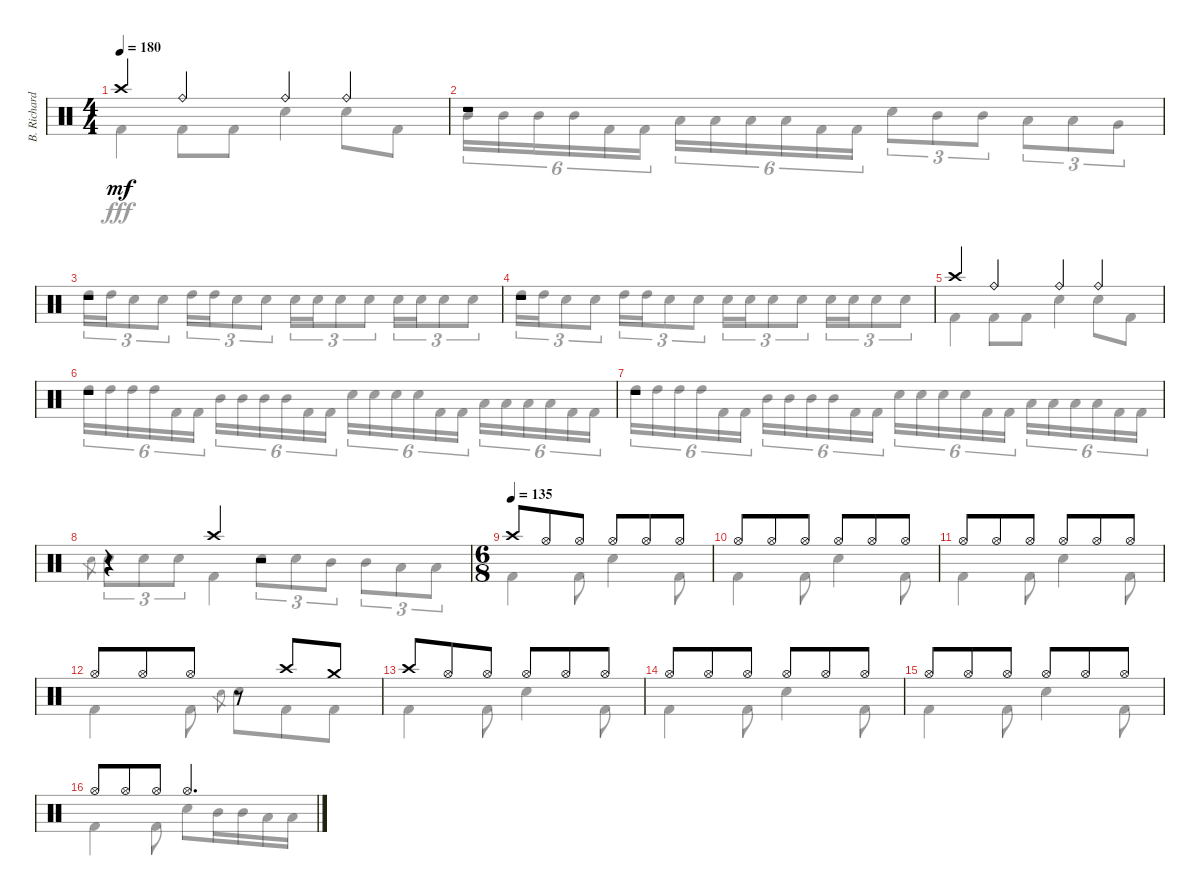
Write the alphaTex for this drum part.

\track ("B. Richardson Drums" "B. Richard") {instrument percussion}
\staff {score}
\articulation defaults
\voice
\ts (4 4)
\tempo 180
\clef neutral
\ks c "Crash high (hit)".4{dy mf} "Ride (bell)".4 "Ride (bell)".4 "Ride (bell)".4
|
r.1 |
r.1 |
r.1 |
"Crash high (hit)".4 "Ride (bell)".4 "Ride (bell)".4 "Ride (bell)".4 |
r.1 |
r.1 |
r.4 "Crash high (hit)".4 r.2 |
\ts (6 8)
\tempo (135)
"Crash high (hit)".8 "Hi-Hat (open)".8 "Hi-Hat (open)".8 "Hi-Hat (open)".8 "Hi-Hat (open)".8 "Hi-Hat (open)".8 |
"Hi-Hat (open)".8 "Hi-Hat (open)".8 "Hi-Hat (open)".8 "Hi-Hat (open)".8 "Hi-Hat (open)".8 "Hi-Hat (open)".8 |
"Hi-Hat (open)".8 "Hi-Hat (open)".8 "Hi-Hat (open)".8 "Hi-Hat (open)".8 "Hi-Hat (open)".8 "Hi-Hat (open)".8 |
"Hi-Hat (open)".8 "Hi-Hat (open)".8 "Hi-Hat (open)".8 r.8 "Crash high (hit)".8 "Crash medium (hit)".8 |
"Crash high (hit)".8 "Hi-Hat (open)".8 "Hi-Hat (open)".8 "Hi-Hat (open)".8 "Hi-Hat (open)".8 "Hi-Hat (open)".8 |
"Hi-Hat (open)".8 "Hi-Hat (open)".8 "Hi-Hat (open)".8 "Hi-Hat (open)".8 "Hi-Hat (open)".8 "Hi-Hat (open)".8 |
"Hi-Hat (open)".8 "Hi-Hat (open)".8 "Hi-Hat (open)".8 "Hi-Hat (open)".8 "Hi-Hat (open)".8 "Hi-Hat (open)".8 |
"Hi-Hat (open)".8 "Hi-Hat (open)".8 "Hi-Hat (open)".8 "Hi-Hat (open)".4{d}
\voice
\clef neutral
\ottava regular
\simile none
\ks c "Kick (hit) 2".4{dy fff} "Kick (hit) 2".8 "Kick (hit) 2".8 "Electric Snare (hit)".4 "Electric Snare (hit)".8 "Kick (hit) 2".8
|
"Mid Tom (hit)".16{tu (6 4)} "Mid Tom (hit)".16{tu (6 4)} "Mid Tom (hit)".16{tu (6 4)} "Mid Tom (hit)".16{tu (6 4)} "Kick (hit) 2".16{tu (6 4)} "Kick (hit) 2".16{tu (6 4)} "Low Tom (hit)".16{tu (6 4)} "Low Tom (hit)".16{tu (6 4)} "Low Tom (hit)".16{tu (6 4)} "Low Tom (hit)".16{tu (6 4)} "Kick (hit) 2".16{tu (6 4)} "Kick (hit) 2".16{tu (6 4)} "Electric Snare (hit)".8{tu (3 2)} "Mid Tom (hit)".8{tu (3 2)} "Mid Tom (hit)".8{tu (3 2)} "Low Tom (hit)".8{tu (3 2)} "Low Tom (hit)".8{tu (3 2)} "Very Low Tom (hit)".8{tu (3 2)} |
"High Tom (hit)".16{tu (3 2)} "High Tom (hit)".16{tu (3 2)} "Electric Snare (hit)".8{tu (3 2)} "Electric Snare (hit)".8{tu (3 2)} "High Tom (hit)".16{tu (3 2)} "High Tom (hit)".16{tu (3 2)} "Electric Snare (hit)".8{tu (3 2)} "Electric Snare (hit)".8{tu (3 2)} "Electric Snare (hit)".16{tu (3 2)} "Electric Snare (hit)".16{tu (3 2)} "Electric Snare (hit)".8{tu (3 2)} "Electric Snare (hit)".8{tu (3 2)} "Electric Snare (hit)".16{tu (3 2)} "Electric Snare (hit)".16{tu (3 2)} "Electric Snare (hit)".8{tu (3 2)} "Electric Snare (hit)".8{tu (3 2)} |
"High Tom (hit)".16{tu (3 2)} "High Tom (hit)".16{tu (3 2)} "Electric Snare (hit)".8{tu (3 2)} "Electric Snare (hit)".8{tu (3 2)} "High Tom (hit)".16{tu (3 2)} "High Tom (hit)".16{tu (3 2)} "Electric Snare (hit)".8{tu (3 2)} "Electric Snare (hit)".8{tu (3 2)} "Electric Snare (hit)".16{tu (3 2)} "Electric Snare (hit)".16{tu (3 2)} "Electric Snare (hit)".8{tu (3 2)} "Electric Snare (hit)".8{tu (3 2)} "Electric Snare (hit)".16{tu (3 2)} "Electric Snare (hit)".16{tu (3 2)} "Electric Snare (hit)".8{tu (3 2)} "Electric Snare (hit)".8{tu (3 2)} |
"Kick (hit) 2".4 "Kick (hit) 2".8 "Kick (hit) 2".8 "Electric Snare (hit)".4 "Electric Snare (hit)".8 "Kick (hit) 2".8 |
"High Tom (hit)".16{tu (6 4)} "High Tom (hit)".16{tu (6 4)} "High Tom (hit)".16{tu (6 4)} "High Tom (hit)".16{tu (6 4)} "Kick (hit) 2".16{tu (6 4)} "Kick (hit) 2".16{tu (6 4)} "Mid Tom (hit)".16{tu (6 4)} "Mid Tom (hit)".16{tu (6 4)} "Mid Tom (hit)".16{tu (6 4)} "Mid Tom (hit)".16{tu (6 4)} "Kick (hit) 2".16{tu (6 4)} "Kick (hit) 2".16{tu (6 4)} "Electric Snare (hit)".16{tu (6 4)} "Electric Snare (hit)".16{tu (6 4)} "Electric Snare (hit)".16{tu (6 4)} "Electric Snare (hit)".16{tu (6 4)} "Kick (hit) 2".16{tu (6 4)} "Kick (hit) 2".16{tu (6 4)} "Low Tom (hit)".16{tu (6 4)} "Low Tom (hit)".16{tu (6 4)} "Low Tom (hit)".16{tu (6 4)} "Low Tom (hit)".16{tu (6 4)} "Kick (hit) 2".16{tu (6 4)} "Kick (hit) 2".16{tu (6 4)} |
"High Tom (hit)".16{tu (6 4)} "High Tom (hit)".16{tu (6 4)} "High Tom (hit)".16{tu (6 4)} "High Tom (hit)".16{tu (6 4)} "Kick (hit) 2".16{tu (6 4)} "Kick (hit) 2".16{tu (6 4)} "Mid Tom (hit)".16{tu (6 4)} "Mid Tom (hit)".16{tu (6 4)} "Mid Tom (hit)".16{tu (6 4)} "Mid Tom (hit)".16{tu (6 4)} "Kick (hit) 2".16{tu (6 4)} "Kick (hit) 2".16{tu (6 4)} "Electric Snare (hit)".16{tu (6 4)} "Electric Snare (hit)".16{tu (6 4)} "Electric Snare (hit)".16{tu (6 4)} "Electric Snare (hit)".16{tu (6 4)} "Kick (hit) 2".16{tu (6 4)} "Kick (hit) 2".16{tu (6 4)} "Low Tom (hit)".16{tu (6 4)} "Low Tom (hit)".16{tu (6 4)} "Low Tom (hit)".16{tu (6 4)} "Low Tom (hit)".16{tu (6 4)} "Kick (hit) 2".16{tu (6 4)} "Kick (hit) 2".16{tu (6 4)} |
"Electric Snare (hit)".8{gr} "Electric Snare (hit)".8{tu (3 2)} "Electric Snare (hit)".8{tu (3 2)} "Electric Snare (hit)".8{tu (3 2)} "Kick (hit) 2".4 "Electric Snare (hit)".8{tu (3 2)} "Electric Snare (hit)".8{tu (3 2)} "Mid Tom (hit)".8{tu (3 2)} "Mid Tom (hit)".8{tu (3 2)} "Low Tom (hit)".8{tu (3 2)} "Low Tom (hit)".8{tu (3 2)} |
"Kick (hit) 2".4 "Kick (hit) 2".8 "Electric Snare (hit)".4 "Kick (hit) 2".8 |
"Kick (hit) 2".4 "Kick (hit) 2".8 "Electric Snare (hit)".4 "Kick (hit) 2".8 |
"Kick (hit) 2".4 "Kick (hit) 2".8 "Electric Snare (hit)".4 "Kick (hit) 2".8 |
"Kick (hit) 2".4 "Kick (hit) 2".8 "Electric Snare (hit)".8{gr} "Electric Snare (hit)".8 "Kick (hit) 2".8 "Kick (hit) 2".8 |
"Kick (hit) 2".4 "Kick (hit) 2".8 "Electric Snare (hit)".4 "Kick (hit) 2".8 |
"Kick (hit) 2".4 "Kick (hit) 2".8 "Electric Snare (hit)".4 "Kick (hit) 2".8 |
"Kick (hit) 2".4 "Kick (hit) 2".8 "Electric Snare (hit)".4 "Kick (hit) 2".8 |
"Kick (hit) 2".4 "Kick (hit) 2".8 "Electric Snare (hit)".8 "Mid Tom (hit)".16 "Mid Tom (hit)".16 "Low Tom (hit)".16 "Low Tom (hit)".16
